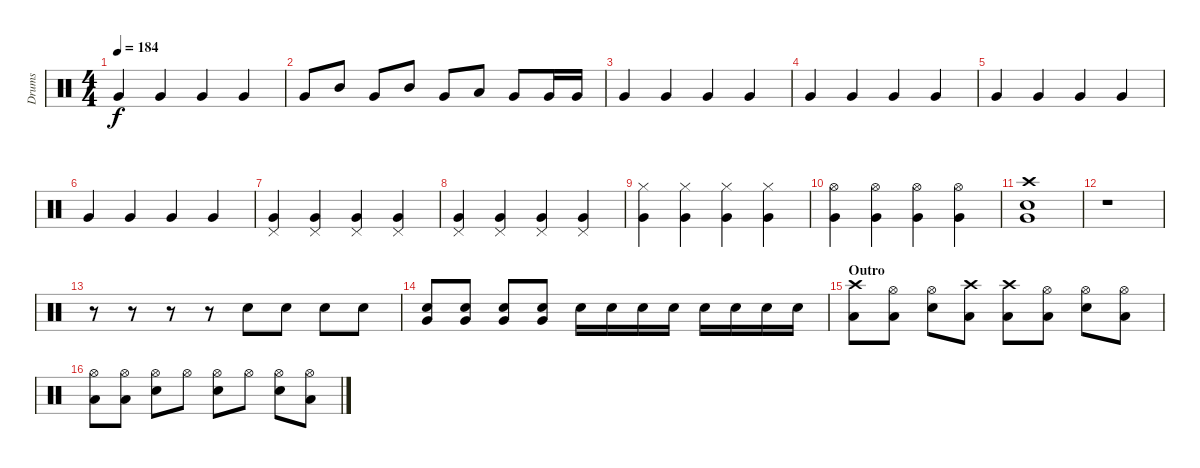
\track ("Drums" "Drums") {instrument percussion}
\staff {score}
\articulation defaults
\ts (4 4)
\tempo 184
\clef neutral
\ks c "Very Low Tom (hit)".4{dy f} "Very Low Tom (hit)".4 "Very Low Tom (hit)".4 "Very Low Tom (hit)".4
|
"Very Low Tom (hit)".8 "Mid Tom (hit)".8 "Very Low Tom (hit)".8 "Mid Tom (hit)".8 "Very Low Tom (hit)".8 "Low Tom (hit)".8 "Very Low Tom (hit)".8 "Very Low Tom (hit)".16 "Very Low Tom (hit)".16 |
"Very Low Tom (hit)".4 "Very Low Tom (hit)".4 "Very Low Tom (hit)".4 "Very Low Tom (hit)".4 |
"Very Low Tom (hit)".4 "Very Low Tom (hit)".4 "Very Low Tom (hit)".4 "Very Low Tom (hit)".4 |
"Very Low Tom (hit)".4 "Very Low Tom (hit)".4 "Very Low Tom (hit)".4 "Very Low Tom (hit)".4 |
"Very Low Tom (hit)".4 "Very Low Tom (hit)".4 "Very Low Tom (hit)".4 "Very Low Tom (hit)".4 |
("Pedal Hi-Hat (hit)" "Very Low Tom (hit)").4 ("Pedal Hi-Hat (hit)" "Very Low Tom (hit)").4 ("Pedal Hi-Hat (hit)" "Very Low Tom (hit)").4 ("Pedal Hi-Hat (hit)" "Very Low Tom (hit)").4 |
("Pedal Hi-Hat (hit)" "Very Low Tom (hit)").4 ("Pedal Hi-Hat (hit)" "Very Low Tom (hit)").4 ("Pedal Hi-Hat (hit)" "Very Low Tom (hit)").4 ("Pedal Hi-Hat (hit)" "Very Low Tom (hit)").4 |
("Hi-Hat (closed)" "Very Low Tom (hit)").4 ("Hi-Hat (closed)" "Very Low Tom (hit)").4 ("Hi-Hat (closed)" "Very Low Tom (hit)").4 ("Hi-Hat (closed)" "Very Low Tom (hit)").4 |
("Hi-Hat (open)" "Very Low Tom (hit)").4 ("Hi-Hat (open)" "Very Low Tom (hit)").4 ("Hi-Hat (open)" "Very Low Tom (hit)").4 ("Hi-Hat (open)" "Very Low Tom (hit)").4 |
("Crash high (hit)" "Electric Snare (hit)" "Very Low Tom (hit)").1 |
r.1 |
r.8 r.8 r.8 r.8 "Snare (hit) 2".8 "Snare (hit) 2".8 "Snare (hit) 2".8 "Snare (hit) 2".8 |
("Electric Snare (hit)" "Very Low Tom (hit)").8 ("Electric Snare (hit)" "Very Low Tom (hit)").8 ("Electric Snare (hit)" "Very Low Tom (hit)").8 ("Electric Snare (hit)" "Very Low Tom (hit)").8 "Electric Snare (hit)".16 "Electric Snare (hit)".16 "Electric Snare (hit)".16 "Electric Snare (hit)".16 "Electric Snare (hit)".16 "Electric Snare (hit)".16 "Electric Snare (hit)".16 "Electric Snare (hit)".16 |
\section ("" "Outro")
("Crash high (hit)" "Low Tom (hit)").8 ("Hi-Hat (open)" "Low Tom (hit)").8 ("Hi-Hat (open)" "Electric Snare (hit)").8 ("Crash high (hit)" "Low Tom (hit)").8 ("Crash high (hit)" "Low Tom (hit)").8 ("Hi-Hat (open)" "Low Tom (hit)").8 ("Hi-Hat (open)" "Electric Snare (hit)").8 ("Hi-Hat (open)" "Low Tom (hit)").8 |
("Hi-Hat (open)" "Low Tom (hit)").8 ("Hi-Hat (open)" "Low Tom (hit)").8 ("Hi-Hat (open)" "Electric Snare (hit)").8 "Hi-Hat (open)".8 ("Hi-Hat (open)" "Electric Snare (hit)").8 "Hi-Hat (open)".8 ("Hi-Hat (open)" "Electric Snare (hit)").8 ("Hi-Hat (open)" "Low Tom (hit)").8
